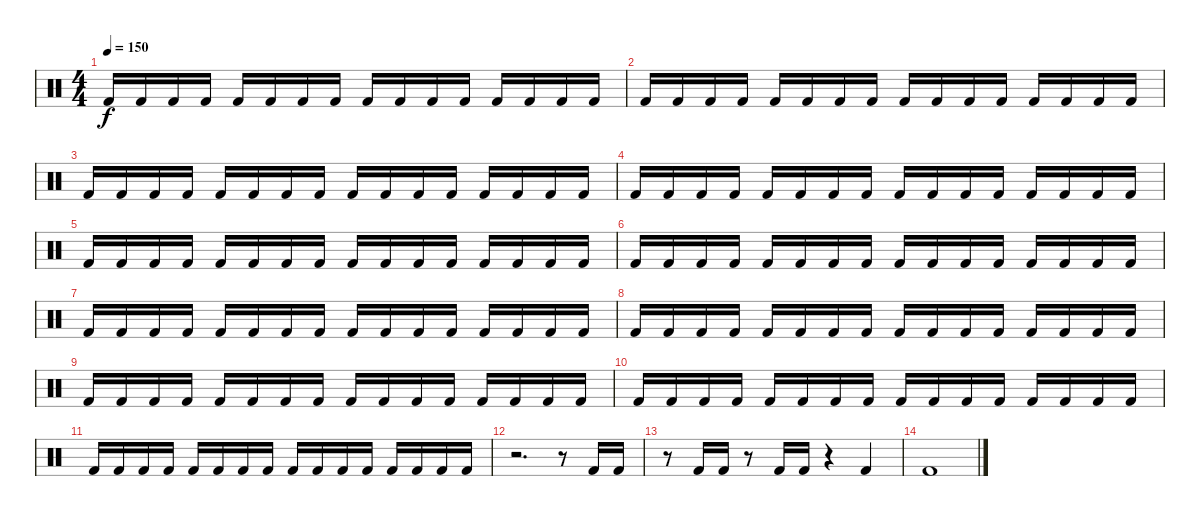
\track "" {instrument percussion}
\staff {score}
\articulation defaults
\ts (4 4)
\tempo 150
\clef neutral
\ks c "Kick (hit) 2".16{dy f} "Kick (hit) 2".16 "Kick (hit) 2".16 "Kick (hit) 2".16 "Kick (hit) 2".16 "Kick (hit) 2".16 "Kick (hit) 2".16 "Kick (hit) 2".16 "Kick (hit) 2".16 "Kick (hit) 2".16 "Kick (hit) 2".16 "Kick (hit) 2".16 "Kick (hit) 2".16 "Kick (hit) 2".16 "Kick (hit) 2".16 "Kick (hit) 2".16
|
"Kick (hit) 2".16 "Kick (hit) 2".16 "Kick (hit) 2".16 "Kick (hit) 2".16 "Kick (hit) 2".16 "Kick (hit) 2".16 "Kick (hit) 2".16 "Kick (hit) 2".16 "Kick (hit) 2".16 "Kick (hit) 2".16 "Kick (hit) 2".16 "Kick (hit) 2".16 "Kick (hit) 2".16 "Kick (hit) 2".16 "Kick (hit) 2".16 "Kick (hit) 2".16 |
"Kick (hit) 2".16 "Kick (hit) 2".16 "Kick (hit) 2".16 "Kick (hit) 2".16 "Kick (hit) 2".16 "Kick (hit) 2".16 "Kick (hit) 2".16 "Kick (hit) 2".16 "Kick (hit) 2".16 "Kick (hit) 2".16 "Kick (hit) 2".16 "Kick (hit) 2".16 "Kick (hit) 2".16 "Kick (hit) 2".16 "Kick (hit) 2".16 "Kick (hit) 2".16 |
"Kick (hit) 2".16 "Kick (hit) 2".16 "Kick (hit) 2".16 "Kick (hit) 2".16 "Kick (hit) 2".16 "Kick (hit) 2".16 "Kick (hit) 2".16 "Kick (hit) 2".16 "Kick (hit) 2".16 "Kick (hit) 2".16 "Kick (hit) 2".16 "Kick (hit) 2".16 "Kick (hit) 2".16 "Kick (hit) 2".16 "Kick (hit) 2".16 "Kick (hit) 2".16 |
"Kick (hit) 2".16 "Kick (hit) 2".16 "Kick (hit) 2".16 "Kick (hit) 2".16 "Kick (hit) 2".16 "Kick (hit) 2".16 "Kick (hit) 2".16 "Kick (hit) 2".16 "Kick (hit) 2".16 "Kick (hit) 2".16 "Kick (hit) 2".16 "Kick (hit) 2".16 "Kick (hit) 2".16 "Kick (hit) 2".16 "Kick (hit) 2".16 "Kick (hit) 2".16 |
"Kick (hit) 2".16 "Kick (hit) 2".16 "Kick (hit) 2".16 "Kick (hit) 2".16 "Kick (hit) 2".16 "Kick (hit) 2".16 "Kick (hit) 2".16 "Kick (hit) 2".16 "Kick (hit) 2".16 "Kick (hit) 2".16 "Kick (hit) 2".16 "Kick (hit) 2".16 "Kick (hit) 2".16 "Kick (hit) 2".16 "Kick (hit) 2".16 "Kick (hit) 2".16 |
"Kick (hit) 2".16 "Kick (hit) 2".16 "Kick (hit) 2".16 "Kick (hit) 2".16 "Kick (hit) 2".16 "Kick (hit) 2".16 "Kick (hit) 2".16 "Kick (hit) 2".16 "Kick (hit) 2".16 "Kick (hit) 2".16 "Kick (hit) 2".16 "Kick (hit) 2".16 "Kick (hit) 2".16 "Kick (hit) 2".16 "Kick (hit) 2".16 "Kick (hit) 2".16 |
"Kick (hit) 2".16 "Kick (hit) 2".16 "Kick (hit) 2".16 "Kick (hit) 2".16 "Kick (hit) 2".16 "Kick (hit) 2".16 "Kick (hit) 2".16 "Kick (hit) 2".16 "Kick (hit) 2".16 "Kick (hit) 2".16 "Kick (hit) 2".16 "Kick (hit) 2".16 "Kick (hit) 2".16 "Kick (hit) 2".16 "Kick (hit) 2".16 "Kick (hit) 2".16 |
"Kick (hit) 2".16 "Kick (hit) 2".16 "Kick (hit) 2".16 "Kick (hit) 2".16 "Kick (hit) 2".16 "Kick (hit) 2".16 "Kick (hit) 2".16 "Kick (hit) 2".16 "Kick (hit) 2".16 "Kick (hit) 2".16 "Kick (hit) 2".16 "Kick (hit) 2".16 "Kick (hit) 2".16 "Kick (hit) 2".16 "Kick (hit) 2".16 "Kick (hit) 2".16 |
"Kick (hit) 2".16 "Kick (hit) 2".16 "Kick (hit) 2".16 "Kick (hit) 2".16 "Kick (hit) 2".16 "Kick (hit) 2".16 "Kick (hit) 2".16 "Kick (hit) 2".16 "Kick (hit) 2".16 "Kick (hit) 2".16 "Kick (hit) 2".16 "Kick (hit) 2".16 "Kick (hit) 2".16 "Kick (hit) 2".16 "Kick (hit) 2".16 "Kick (hit) 2".16 |
"Kick (hit) 2".16 "Kick (hit) 2".16 "Kick (hit) 2".16 "Kick (hit) 2".16 "Kick (hit) 2".16 "Kick (hit) 2".16 "Kick (hit) 2".16 "Kick (hit) 2".16 "Kick (hit) 2".16 "Kick (hit) 2".16 "Kick (hit) 2".16 "Kick (hit) 2".16 "Kick (hit) 2".16 "Kick (hit) 2".16 "Kick (hit) 2".16 "Kick (hit) 2".16 |
r.2{d} r.8 "Kick (hit) 2".16 "Kick (hit) 2".16 |
r.8 "Kick (hit) 2".16 "Kick (hit) 2".16 r.8 "Kick (hit) 2".16 "Kick (hit) 2".16 r.4 "Kick (hit) 2".4 |
"Kick (hit) 2".1
